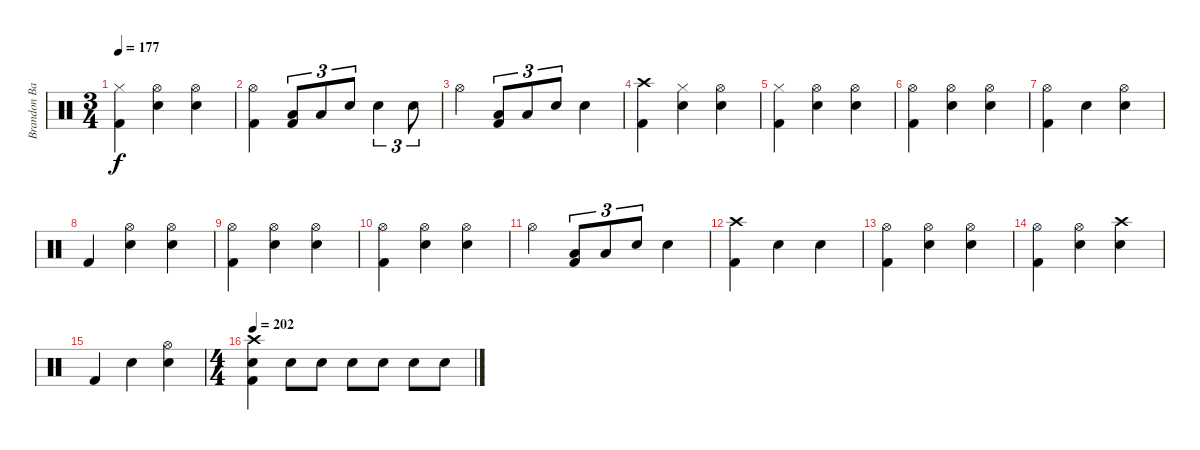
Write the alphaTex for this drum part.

\track ("Brandon Barnes - Drums" "Brandon Ba") {instrument percussion}
\staff {score}
\articulation defaults
\ts (3 4)
\tempo 177
\clef neutral
\ks c
("Hi-Hat (closed)" "Kick (hit) 2").4{dy f} ("Hi-Hat (open)" "Snare (hit) 2").4 ("Hi-Hat (open)" "Snare (hit) 2").4 |
("Hi-Hat (open)" "Kick (hit) 2").4 ("Kick (hit) 2" "Low Tom (hit)").8{tu (3 2)} "Low Tom (hit)".8{tu (3 2)} "Snare (hit) 2".8{tu (3 2)} "Snare (hit) 2".4{tu (3 2)} "Snare (hit) 2".8{tu (3 2)} |
"Hi-Hat (open)".4 ("Kick (hit) 2" "Low Tom (hit)").8{tu (3 2)} "Low Tom (hit)".8{tu (3 2)} "Snare (hit) 2".8{tu (3 2)} "Snare (hit) 2".4 |
("Crash high (hit)" "Kick (hit) 2").4 ("Hi-Hat (closed)" "Snare (hit) 2").4 ("Hi-Hat (open)" "Snare (hit) 2").4 |
("Hi-Hat (closed)" "Kick (hit) 2").4 ("Hi-Hat (open)" "Snare (hit) 2").4 ("Hi-Hat (open)" "Snare (hit) 2").4 |
("Hi-Hat (open)" "Kick (hit) 2").4 ("Hi-Hat (open)" "Snare (hit) 2").4 ("Hi-Hat (open)" "Snare (hit) 2").4 |
("Hi-Hat (open)" "Kick (hit) 2").4 "Snare (hit) 2".4 ("Hi-Hat (open)" "Snare (hit) 2").4 |
"Kick (hit) 2".4 ("Hi-Hat (open)" "Snare (hit) 2").4 ("Hi-Hat (open)" "Snare (hit) 2").4 |
("Hi-Hat (open)" "Kick (hit) 2").4 ("Hi-Hat (open)" "Snare (hit) 2").4 ("Hi-Hat (open)" "Snare (hit) 2").4 |
("Hi-Hat (open)" "Kick (hit) 2").4 ("Hi-Hat (open)" "Snare (hit) 2").4 ("Hi-Hat (open)" "Snare (hit) 2").4 |
"Hi-Hat (open)".4 ("Kick (hit) 2" "Low Tom (hit)").8{tu (3 2)} "Low Tom (hit)".8{tu (3 2)} "Snare (hit) 2".8{tu (3 2)} "Snare (hit) 2".4 |
("Crash high (hit)" "Kick (hit) 2").4 "Snare (hit) 2".4 "Snare (hit) 2".4 |
("Hi-Hat (open)" "Kick (hit) 2").4 ("Hi-Hat (open)" "Snare (hit) 2").4 ("Hi-Hat (open)" "Snare (hit) 2").4 |
("Hi-Hat (open)" "Kick (hit) 2").4 ("Hi-Hat (open)" "Snare (hit) 2").4 ("Crash high (hit)" "Snare (hit) 2").4 |
"Kick (hit) 2".4 "Snare (hit) 2".4 ("Snare (hit) 2" "Hi-Hat (open)").4 |
\ts (4 4)
\tempo 202
("Crash high (hit)" "Snare (hit) 2" "Kick (hit) 2").4 "Snare (hit) 2".8 "Snare (hit) 2".8 "Snare (hit) 2".8 "Snare (hit) 2".8 "Snare (hit) 2".8 "Snare (hit) 2".8
